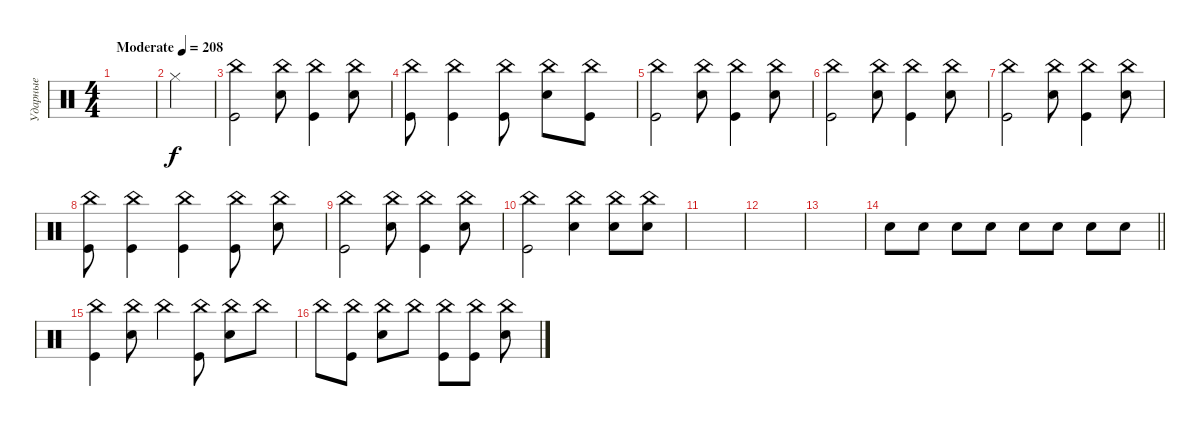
\track ("Ударные" "Ударные") {instrument percussion}
\staff {score}
\articulation defaults
\ts (4 4)
\tempo (208 "Moderate")
\clef neutral
\ks c
|
"Hi-Hat (closed)".4 |
("Kick (hit)" "China (hit)").2 ("Snare (hit) 2" "China (hit)").8 ("Kick (hit)" "China (hit)").4 ("Snare (hit) 2" "China (hit)").8 |
("Kick (hit)" "China (hit)").8 ("Kick (hit)" "China (hit)").4 ("Kick (hit)" "China (hit)").8 ("Snare (hit) 2" "China (hit)").8 ("Kick (hit)" "China (hit)").8 |
("Kick (hit)" "China (hit)").2 ("Snare (hit) 2" "China (hit)").8 ("Kick (hit)" "China (hit)").4 ("Snare (hit) 2" "China (hit)").8 |
("Kick (hit)" "China (hit)").2 ("Snare (hit) 2" "China (hit)").8 ("Kick (hit)" "China (hit)").4 ("Snare (hit) 2" "China (hit)").8 |
("Kick (hit)" "China (hit)").2 ("Snare (hit) 2" "China (hit)").8 ("Kick (hit)" "China (hit)").4 ("Snare (hit) 2" "China (hit)").8 |
("Kick (hit)" "China (hit)").8 ("Kick (hit)" "China (hit)").4 ("Kick (hit)" "China (hit)").4 ("Kick (hit)" "China (hit)").8 ("Snare (hit) 2" "China (hit)").8 |
("Kick (hit)" "China (hit)").2 ("Snare (hit) 2" "China (hit)").8 ("Kick (hit)" "China (hit)").4 ("Snare (hit) 2" "China (hit)").8 |
("Kick (hit)" "China (hit)").2 ("Snare (hit) 2" "China (hit)").4 ("Snare (hit) 2" "China (hit)").8 ("Snare (hit) 2" "China (hit)").8 |
|
|
|
\barLineRight lightlight "Snare (hit) 2".8 "Snare (hit) 2".8 "Snare (hit) 2".8 "Snare (hit) 2".8 "Snare (hit) 2".8 "Snare (hit) 2".8 "Snare (hit) 2".8 "Snare (hit) 2".8
|
("Kick (hit)" "China (hit)").4 ("Snare (hit) 2" "China (hit)").8 "China (hit)".4 ("Kick (hit)" "China (hit)").8 ("Snare (hit) 2" "China (hit)").8 "China (hit)".8 |
"China (hit)".8 ("Kick (hit)" "China (hit)").8 ("Snare (hit) 2" "China (hit)").8 "China (hit)".8 ("Kick (hit)" "China (hit)").8 ("Kick (hit)" "China (hit)").8 ("Snare (hit) 2" "China (hit)").8
